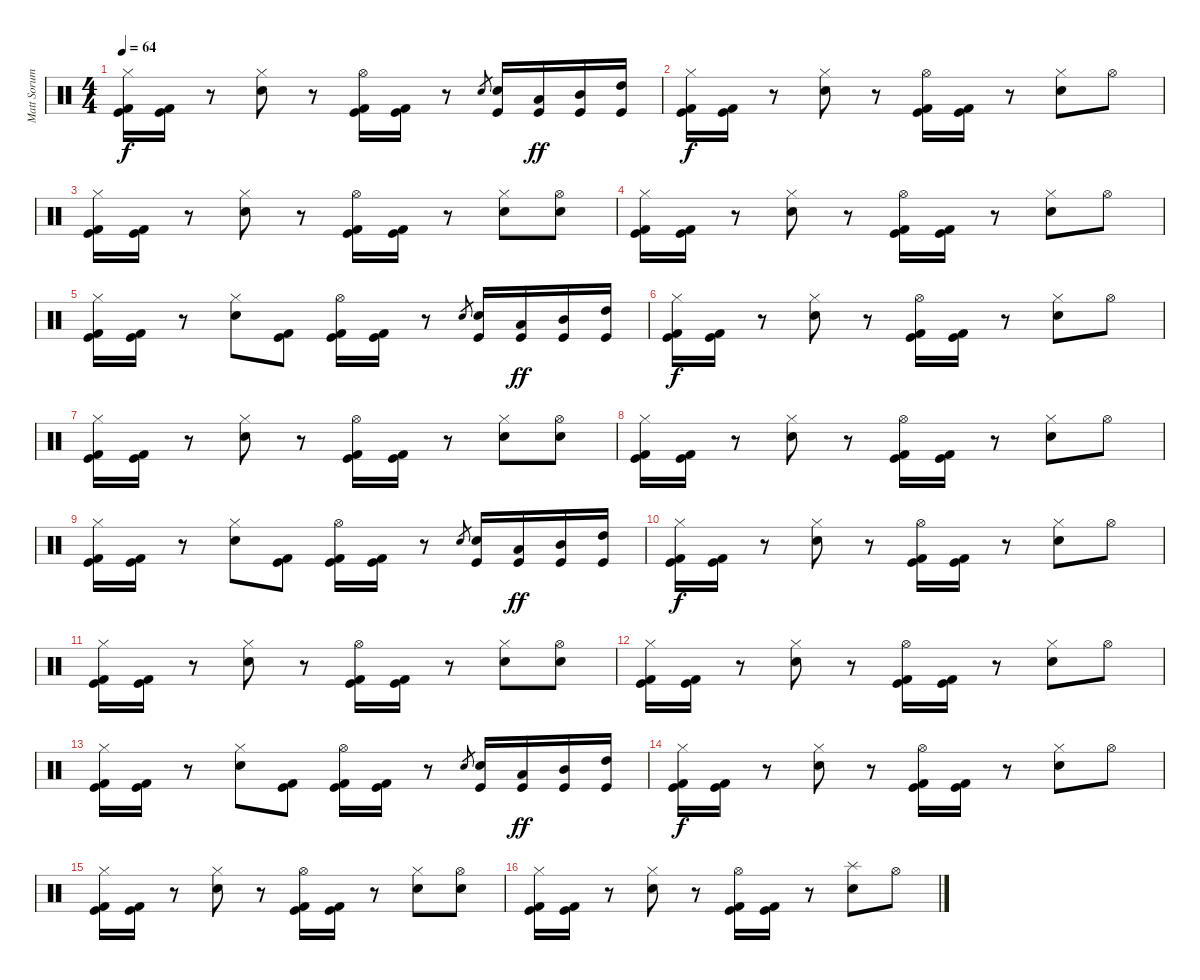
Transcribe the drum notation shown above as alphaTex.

\track ("Matt Sorum" "Matt Sorum") {instrument percussion}
\staff {score}
\articulation defaults
\ts (4 4)
\tempo 64
\clef neutral
\ks c
("Hi-Hat (closed)" "Kick (hit) 2" "Kick (hit)").16{dy f} ("Kick (hit) 2" "Kick (hit)").16 r.8 ("Hi-Hat (closed)" "Electric Snare (hit)").8 r.8 ("Hi-Hat (open)" "Kick (hit) 2" "Kick (hit)").16 ("Kick (hit) 2" "Kick (hit)").16 r.8 "Electric Snare (hit)".8{gr} ("Electric Snare (hit)" "Kick (hit)").16 ("Low Tom (hit)" "Kick (hit)").16{dy ff} ("Mid Tom (hit)" "Kick (hit)").16 ("High Tom (hit)" "Kick (hit)").16 |
("Hi-Hat (closed)" "Kick (hit) 2" "Kick (hit)").16{dy f} ("Kick (hit) 2" "Kick (hit)").16 r.8 ("Hi-Hat (closed)" "Electric Snare (hit)").8 r.8 ("Hi-Hat (open)" "Kick (hit) 2" "Kick (hit)").16 ("Kick (hit) 2" "Kick (hit)").16 r.8 ("Hi-Hat (closed)" "Electric Snare (hit)").8 "Hi-Hat (open)".8 |
("Hi-Hat (closed)" "Kick (hit) 2" "Kick (hit)").16 ("Kick (hit) 2" "Kick (hit)").16 r.8 ("Hi-Hat (closed)" "Electric Snare (hit)").8 r.8 ("Hi-Hat (open)" "Kick (hit) 2" "Kick (hit)").16 ("Kick (hit) 2" "Kick (hit)").16 r.8 ("Hi-Hat (closed)" "Electric Snare (hit)").8 ("Hi-Hat (open)" "Electric Snare (hit)").8 |
("Hi-Hat (closed)" "Kick (hit) 2" "Kick (hit)").16 ("Kick (hit) 2" "Kick (hit)").16 r.8 ("Hi-Hat (closed)" "Electric Snare (hit)").8 r.8 ("Hi-Hat (open)" "Kick (hit) 2" "Kick (hit)").16 ("Kick (hit) 2" "Kick (hit)").16 r.8 ("Hi-Hat (closed)" "Electric Snare (hit)").8 "Hi-Hat (open)".8 |
("Hi-Hat (closed)" "Kick (hit) 2" "Kick (hit)").16 ("Kick (hit) 2" "Kick (hit)").16 r.8 ("Hi-Hat (closed)" "Electric Snare (hit)").8 ("Kick (hit) 2" "Kick (hit)").8 ("Hi-Hat (open)" "Kick (hit) 2" "Kick (hit)").16 ("Kick (hit) 2" "Kick (hit)").16 r.8 "Electric Snare (hit)".8{gr} ("Electric Snare (hit)" "Kick (hit)").16 ("Low Tom (hit)" "Kick (hit)").16{dy ff} ("Mid Tom (hit)" "Kick (hit)").16 ("High Tom (hit)" "Kick (hit)").16 |
("Hi-Hat (closed)" "Kick (hit) 2" "Kick (hit)").16{dy f} ("Kick (hit) 2" "Kick (hit)").16 r.8 ("Hi-Hat (closed)" "Electric Snare (hit)").8 r.8 ("Hi-Hat (open)" "Kick (hit) 2" "Kick (hit)").16 ("Kick (hit) 2" "Kick (hit)").16 r.8 ("Hi-Hat (closed)" "Electric Snare (hit)").8 "Hi-Hat (open)".8 |
("Hi-Hat (closed)" "Kick (hit) 2" "Kick (hit)").16 ("Kick (hit) 2" "Kick (hit)").16 r.8 ("Hi-Hat (closed)" "Electric Snare (hit)").8 r.8 ("Hi-Hat (open)" "Kick (hit) 2" "Kick (hit)").16 ("Kick (hit) 2" "Kick (hit)").16 r.8 ("Hi-Hat (closed)" "Electric Snare (hit)").8 ("Hi-Hat (open)" "Electric Snare (hit)").8 |
("Hi-Hat (closed)" "Kick (hit) 2" "Kick (hit)").16 ("Kick (hit) 2" "Kick (hit)").16 r.8 ("Hi-Hat (closed)" "Electric Snare (hit)").8 r.8 ("Hi-Hat (open)" "Kick (hit) 2" "Kick (hit)").16 ("Kick (hit) 2" "Kick (hit)").16 r.8 ("Hi-Hat (closed)" "Electric Snare (hit)").8 "Hi-Hat (open)".8 |
("Hi-Hat (closed)" "Kick (hit) 2" "Kick (hit)").16 ("Kick (hit) 2" "Kick (hit)").16 r.8 ("Hi-Hat (closed)" "Electric Snare (hit)").8 ("Kick (hit) 2" "Kick (hit)").8 ("Hi-Hat (open)" "Kick (hit) 2" "Kick (hit)").16 ("Kick (hit) 2" "Kick (hit)").16 r.8 "Electric Snare (hit)".8{gr} ("Electric Snare (hit)" "Kick (hit)").16 ("Low Tom (hit)" "Kick (hit)").16{dy ff} ("Mid Tom (hit)" "Kick (hit)").16 ("High Tom (hit)" "Kick (hit)").16 |
("Hi-Hat (closed)" "Kick (hit) 2" "Kick (hit)").16{dy f} ("Kick (hit) 2" "Kick (hit)").16 r.8 ("Hi-Hat (closed)" "Electric Snare (hit)").8 r.8 ("Hi-Hat (open)" "Kick (hit) 2" "Kick (hit)").16 ("Kick (hit) 2" "Kick (hit)").16 r.8 ("Hi-Hat (closed)" "Electric Snare (hit)").8 "Hi-Hat (open)".8 |
("Hi-Hat (closed)" "Kick (hit) 2" "Kick (hit)").16 ("Kick (hit) 2" "Kick (hit)").16 r.8 ("Hi-Hat (closed)" "Electric Snare (hit)").8 r.8 ("Hi-Hat (open)" "Kick (hit) 2" "Kick (hit)").16 ("Kick (hit) 2" "Kick (hit)").16 r.8 ("Hi-Hat (closed)" "Electric Snare (hit)").8 ("Hi-Hat (open)" "Electric Snare (hit)").8 |
("Hi-Hat (closed)" "Kick (hit) 2" "Kick (hit)").16 ("Kick (hit) 2" "Kick (hit)").16 r.8 ("Hi-Hat (closed)" "Electric Snare (hit)").8 r.8 ("Hi-Hat (open)" "Kick (hit) 2" "Kick (hit)").16 ("Kick (hit) 2" "Kick (hit)").16 r.8 ("Hi-Hat (closed)" "Electric Snare (hit)").8 "Hi-Hat (open)".8 |
("Hi-Hat (closed)" "Kick (hit) 2" "Kick (hit)").16 ("Kick (hit) 2" "Kick (hit)").16 r.8 ("Hi-Hat (closed)" "Electric Snare (hit)").8 ("Kick (hit) 2" "Kick (hit)").8 ("Hi-Hat (open)" "Kick (hit) 2" "Kick (hit)").16 ("Kick (hit) 2" "Kick (hit)").16 r.8 "Electric Snare (hit)".8{gr} ("Electric Snare (hit)" "Kick (hit)").16 ("Low Tom (hit)" "Kick (hit)").16{dy ff} ("Mid Tom (hit)" "Kick (hit)").16 ("High Tom (hit)" "Kick (hit)").16 |
("Hi-Hat (closed)" "Kick (hit) 2" "Kick (hit)").16{dy f} ("Kick (hit) 2" "Kick (hit)").16 r.8 ("Hi-Hat (closed)" "Electric Snare (hit)").8 r.8 ("Hi-Hat (open)" "Kick (hit) 2" "Kick (hit)").16 ("Kick (hit) 2" "Kick (hit)").16 r.8 ("Hi-Hat (closed)" "Electric Snare (hit)").8 "Hi-Hat (open)".8 |
("Hi-Hat (closed)" "Kick (hit) 2" "Kick (hit)").16 ("Kick (hit) 2" "Kick (hit)").16 r.8 ("Hi-Hat (closed)" "Electric Snare (hit)").8 r.8 ("Hi-Hat (open)" "Kick (hit) 2" "Kick (hit)").16 ("Kick (hit) 2" "Kick (hit)").16 r.8 ("Hi-Hat (closed)" "Electric Snare (hit)").8 ("Hi-Hat (open)" "Electric Snare (hit)").8 |
("Hi-Hat (closed)" "Kick (hit) 2" "Kick (hit)").16 ("Kick (hit) 2" "Kick (hit)").16 r.8 ("Hi-Hat (closed)" "Electric Snare (hit)").8 r.8 ("Hi-Hat (open)" "Kick (hit) 2" "Kick (hit)").16 ("Kick (hit) 2" "Kick (hit)").16 r.8 ("Splash (hit)" "Electric Snare (hit)").8 "Hi-Hat (open)".8
